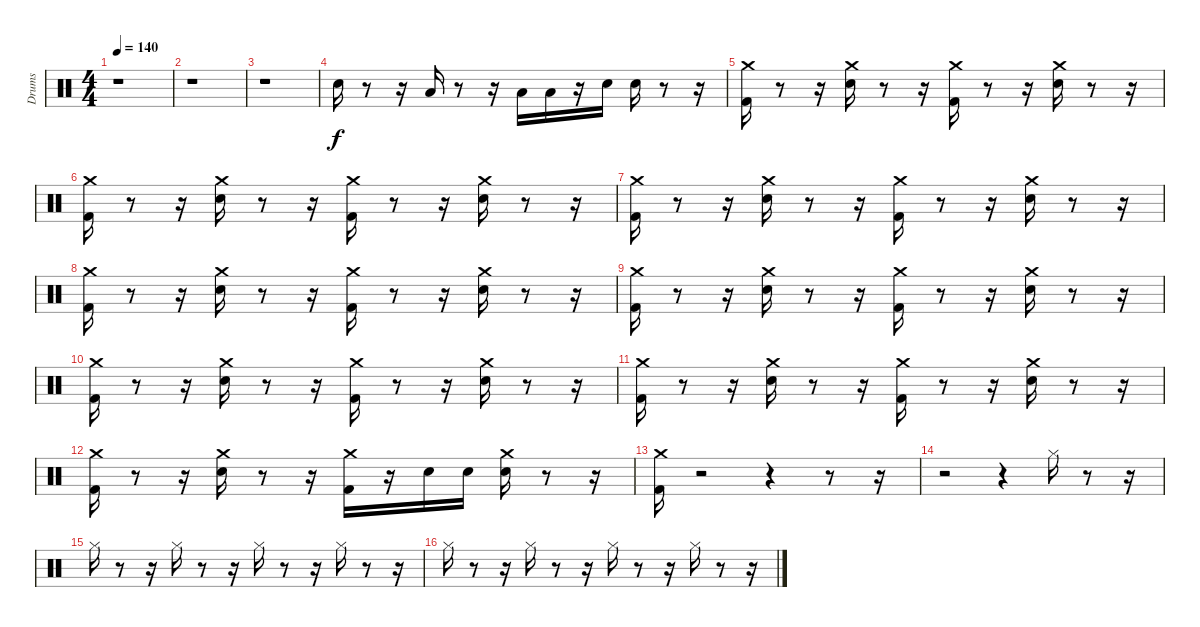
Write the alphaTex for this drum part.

\track ("Drums               " "Drums     ") {instrument percussion}
\staff {score}
\articulation defaults
\ts (4 4)
\tempo 140
\clef neutral
\ks c
r.1{dy f} |
r.1 |
r.1 |
"Electric Snare (hit)".16 r.8 r.16 "Low Floor Tom (hit)".16 r.8 r.16 "Low Tom (hit)".16 "Low Tom (hit)".16 r.16 "Electric Snare (hit)".16 "Electric Snare (hit)".16 r.8 r.16 |
("Kick (hit) 2" "Crash medium (hit)").16 r.8 r.16 ("Electric Snare (hit)" "Crash medium (hit)").16 r.8 r.16 ("Kick (hit) 2" "Crash medium (hit)").16 r.8 r.16 ("Electric Snare (hit)" "Crash medium (hit)").16 r.8 r.16 |
("Kick (hit) 2" "Crash medium (hit)").16 r.8 r.16 ("Electric Snare (hit)" "Crash medium (hit)").16 r.8 r.16 ("Kick (hit) 2" "Crash medium (hit)").16 r.8 r.16 ("Electric Snare (hit)" "Crash medium (hit)").16 r.8 r.16 |
("Kick (hit) 2" "Crash medium (hit)").16 r.8 r.16 ("Electric Snare (hit)" "Crash medium (hit)").16 r.8 r.16 ("Kick (hit) 2" "Crash medium (hit)").16 r.8 r.16 ("Electric Snare (hit)" "Crash medium (hit)").16 r.8 r.16 |
("Kick (hit) 2" "Crash medium (hit)").16 r.8 r.16 ("Electric Snare (hit)" "Crash medium (hit)").16 r.8 r.16 ("Kick (hit) 2" "Crash medium (hit)").16 r.8 r.16 ("Electric Snare (hit)" "Crash medium (hit)").16 r.8 r.16 |
("Kick (hit) 2" "Crash medium (hit)").16 r.8 r.16 ("Electric Snare (hit)" "Crash medium (hit)").16 r.8 r.16 ("Kick (hit) 2" "Crash medium (hit)").16 r.8 r.16 ("Electric Snare (hit)" "Crash medium (hit)").16 r.8 r.16 |
("Kick (hit) 2" "Crash medium (hit)").16 r.8 r.16 ("Electric Snare (hit)" "Crash medium (hit)").16 r.8 r.16 ("Kick (hit) 2" "Crash medium (hit)").16 r.8 r.16 ("Electric Snare (hit)" "Crash medium (hit)").16 r.8 r.16 |
("Kick (hit) 2" "Crash medium (hit)").16 r.8 r.16 ("Electric Snare (hit)" "Crash medium (hit)").16 r.8 r.16 ("Kick (hit) 2" "Crash medium (hit)").16 r.8 r.16 ("Electric Snare (hit)" "Crash medium (hit)").16 r.8 r.16 |
("Kick (hit) 2" "Crash medium (hit)").16 r.8 r.16 ("Electric Snare (hit)" "Crash medium (hit)").16 r.8 r.16 ("Kick (hit) 2" "Crash medium (hit)").16 r.16 "Electric Snare (hit)".16 "Electric Snare (hit)".16 ("Electric Snare (hit)" "Crash medium (hit)").16 r.8 r.16 |
("Kick (hit) 2" "Crash medium (hit)").16 r.2 r.4 r.8 r.16 |
r.2 r.4 "Hi-Hat (closed)".16 r.8 r.16 |
"Hi-Hat (closed)".16 r.8 r.16 "Hi-Hat (closed)".16 r.8 r.16 "Hi-Hat (closed)".16 r.8 r.16 "Hi-Hat (closed)".16 r.8 r.16 |
"Hi-Hat (closed)".16 r.8 r.16 "Hi-Hat (closed)".16 r.8 r.16 "Hi-Hat (closed)".16 r.8 r.16 "Hi-Hat (closed)".16 r.8 r.16
